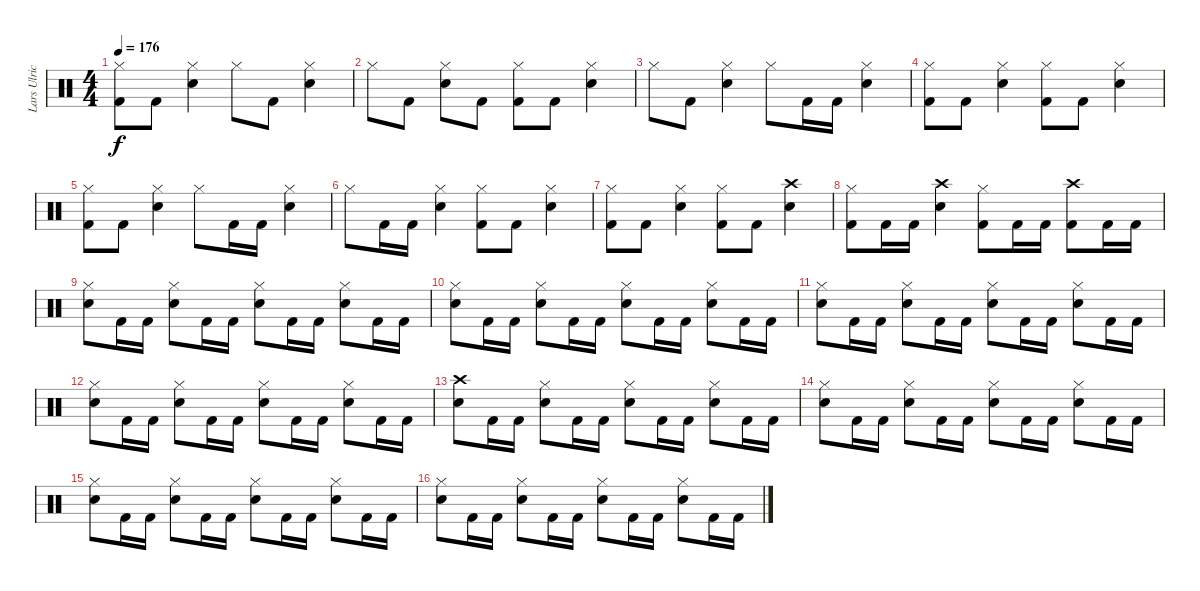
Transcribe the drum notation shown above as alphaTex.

\track ("Lars Ulrich" "Lars Ulric") {instrument percussion}
\staff {score}
\articulation defaults
\ts (4 4)
\tempo 176
\clef neutral
\ks c
("Hi-Hat (closed)" "Kick (hit) 2").8{dy f} "Kick (hit) 2".8 ("Hi-Hat (closed)" "Snare (hit) 2").4 "Hi-Hat (closed)".8 "Kick (hit) 2".8 ("Hi-Hat (closed)" "Snare (hit) 2").4 |
"Hi-Hat (closed)".8 "Kick (hit) 2".8 ("Hi-Hat (closed)" "Snare (hit) 2").8 "Kick (hit) 2".8 ("Hi-Hat (closed)" "Kick (hit) 2").8 "Kick (hit) 2".8 ("Hi-Hat (closed)" "Snare (hit) 2").4 |
"Hi-Hat (closed)".8 "Kick (hit) 2".8 ("Hi-Hat (closed)" "Snare (hit) 2").4 "Hi-Hat (closed)".8 "Kick (hit) 2".16 "Kick (hit) 2".16 ("Hi-Hat (closed)" "Snare (hit) 2").4 |
("Hi-Hat (closed)" "Kick (hit) 2").8 "Kick (hit) 2".8 ("Hi-Hat (closed)" "Snare (hit) 2").4 ("Hi-Hat (closed)" "Kick (hit) 2").8 "Kick (hit) 2".8 ("Hi-Hat (closed)" "Snare (hit) 2").4 |
("Hi-Hat (closed)" "Kick (hit) 2").8 "Kick (hit) 2".8 ("Hi-Hat (closed)" "Snare (hit) 2").4 "Hi-Hat (closed)".8 "Kick (hit) 2".16 "Kick (hit) 2".16 ("Hi-Hat (closed)" "Snare (hit) 2").4 |
"Hi-Hat (closed)".8 "Kick (hit) 2".16 "Kick (hit) 2".16 ("Hi-Hat (closed)" "Snare (hit) 2").4 ("Hi-Hat (closed)" "Kick (hit) 2").8 "Kick (hit) 2".8 ("Hi-Hat (closed)" "Snare (hit) 2").4 |
("Hi-Hat (closed)" "Kick (hit) 2").8 "Kick (hit) 2".8 ("Hi-Hat (closed)" "Snare (hit) 2").4 ("Hi-Hat (closed)" "Kick (hit) 2").8 "Kick (hit) 2".8 ("Crash high (hit)" "Snare (hit) 2").4 |
("Hi-Hat (closed)" "Kick (hit) 2").8 "Kick (hit) 2".16 "Kick (hit) 2".16 ("Crash high (hit)" "Snare (hit) 2").4 ("Hi-Hat (closed)" "Kick (hit) 2").8 "Kick (hit) 2".16 "Kick (hit) 2".16 ("Crash high (hit)" "Kick (hit) 2").8 "Kick (hit) 2".16 "Kick (hit) 2".16 |
("Hi-Hat (closed)" "Snare (hit) 2").8 "Kick (hit) 2".16 "Kick (hit) 2".16 ("Hi-Hat (closed)" "Snare (hit) 2").8 "Kick (hit) 2".16 "Kick (hit) 2".16 ("Hi-Hat (closed)" "Snare (hit) 2").8 "Kick (hit) 2".16 "Kick (hit) 2".16 ("Hi-Hat (closed)" "Snare (hit) 2").8 "Kick (hit) 2".16 "Kick (hit) 2".16 |
("Hi-Hat (closed)" "Snare (hit) 2").8 "Kick (hit) 2".16 "Kick (hit) 2".16 ("Hi-Hat (closed)" "Snare (hit) 2").8 "Kick (hit) 2".16 "Kick (hit) 2".16 ("Hi-Hat (closed)" "Snare (hit) 2").8 "Kick (hit) 2".16 "Kick (hit) 2".16 ("Hi-Hat (closed)" "Snare (hit) 2").8 "Kick (hit) 2".16 "Kick (hit) 2".16 |
("Hi-Hat (closed)" "Snare (hit) 2").8 "Kick (hit) 2".16 "Kick (hit) 2".16 ("Hi-Hat (closed)" "Snare (hit) 2").8 "Kick (hit) 2".16 "Kick (hit) 2".16 ("Hi-Hat (closed)" "Snare (hit) 2").8 "Kick (hit) 2".16 "Kick (hit) 2".16 ("Hi-Hat (closed)" "Snare (hit) 2").8 "Kick (hit) 2".16 "Kick (hit) 2".16 |
("Hi-Hat (closed)" "Snare (hit) 2").8 "Kick (hit) 2".16 "Kick (hit) 2".16 ("Hi-Hat (closed)" "Snare (hit) 2").8 "Kick (hit) 2".16 "Kick (hit) 2".16 ("Hi-Hat (closed)" "Snare (hit) 2").8 "Kick (hit) 2".16 "Kick (hit) 2".16 ("Hi-Hat (closed)" "Snare (hit) 2").8 "Kick (hit) 2".16 "Kick (hit) 2".16 |
("Crash high (hit)" "Snare (hit) 2").8 "Kick (hit) 2".16 "Kick (hit) 2".16 ("Hi-Hat (closed)" "Snare (hit) 2").8 "Kick (hit) 2".16 "Kick (hit) 2".16 ("Hi-Hat (closed)" "Snare (hit) 2").8 "Kick (hit) 2".16 "Kick (hit) 2".16 ("Hi-Hat (closed)" "Snare (hit) 2").8 "Kick (hit) 2".16 "Kick (hit) 2".16 |
("Hi-Hat (closed)" "Snare (hit) 2").8 "Kick (hit) 2".16 "Kick (hit) 2".16 ("Hi-Hat (closed)" "Snare (hit) 2").8 "Kick (hit) 2".16 "Kick (hit) 2".16 ("Hi-Hat (closed)" "Snare (hit) 2").8 "Kick (hit) 2".16 "Kick (hit) 2".16 ("Hi-Hat (closed)" "Snare (hit) 2").8 "Kick (hit) 2".16 "Kick (hit) 2".16 |
("Hi-Hat (closed)" "Snare (hit) 2").8 "Kick (hit) 2".16 "Kick (hit) 2".16 ("Hi-Hat (closed)" "Snare (hit) 2").8 "Kick (hit) 2".16 "Kick (hit) 2".16 ("Hi-Hat (closed)" "Snare (hit) 2").8 "Kick (hit) 2".16 "Kick (hit) 2".16 ("Hi-Hat (closed)" "Snare (hit) 2").8 "Kick (hit) 2".16 "Kick (hit) 2".16 |
("Hi-Hat (closed)" "Snare (hit) 2").8 "Kick (hit) 2".16 "Kick (hit) 2".16 ("Hi-Hat (closed)" "Snare (hit) 2").8 "Kick (hit) 2".16 "Kick (hit) 2".16 ("Hi-Hat (closed)" "Snare (hit) 2").8 "Kick (hit) 2".16 "Kick (hit) 2".16 ("Hi-Hat (closed)" "Snare (hit) 2").8 "Kick (hit) 2".16 "Kick (hit) 2".16
